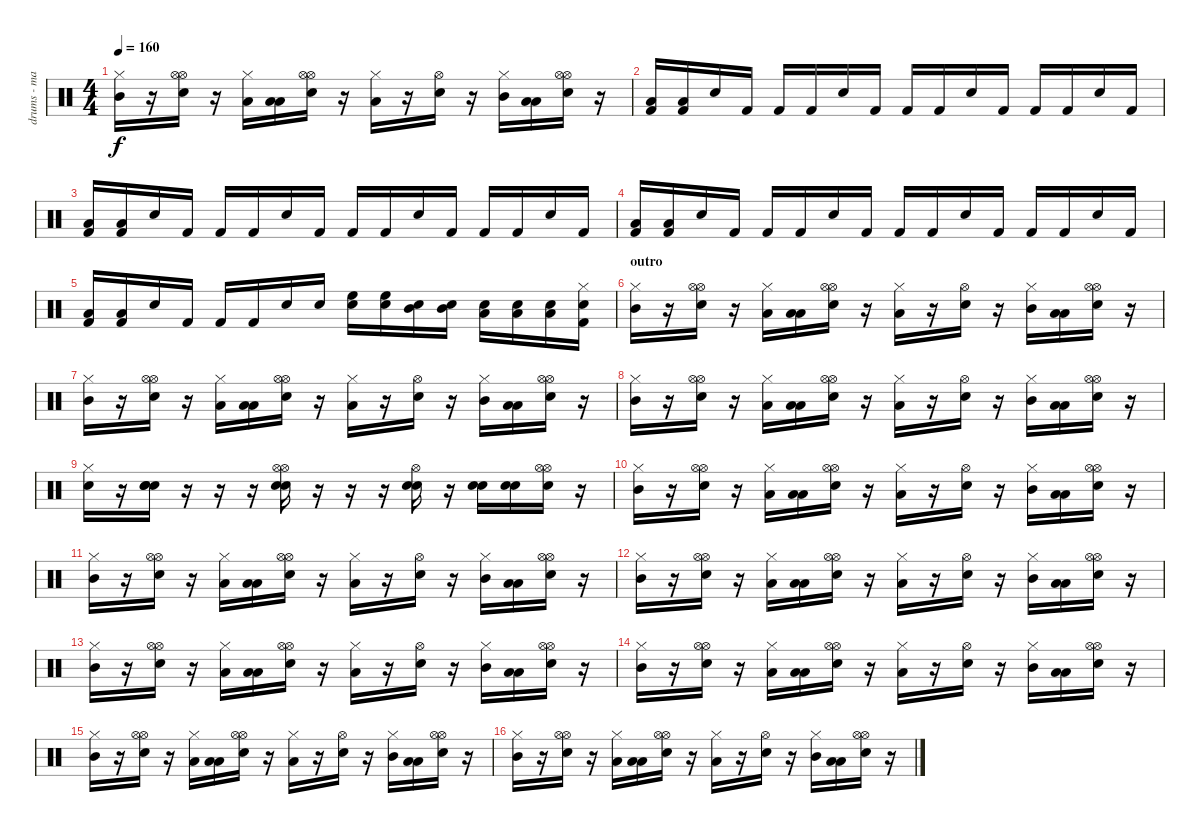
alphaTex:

\track ("drums - martin pelc" "drums - ma") {instrument percussion}
\staff {score}
\articulation defaults
\ts (4 4)
\tempo 160
\clef neutral
\ks c
("Hi-Hat (closed)" "Mid Tom (hit)").16{dy f} r.16 ("Snare (hit) 2" "Hi-Hat (open)" "Hi-Hat (open)").16 r.16 ("Hi-Hat (closed)" "Low Tom (hit)").16 ("Low Tom (hit)" "Low Tom (hit)").16 ("Snare (hit) 2" "Hi-Hat (open)" "Hi-Hat (open)").16 r.16 ("Hi-Hat (closed)" "Low Tom (hit)").16 r.16 ("Snare (hit) 2" "Hi-Hat (open)").16 r.16 ("Hi-Hat (closed)" "Mid Tom (hit)").16 ("Low Tom (hit)" "Low Tom (hit)").16 ("Snare (hit) 2" "Hi-Hat (open)" "Hi-Hat (open)").16 r.16 |
("Low Floor Tom (hit)" "Kick (hit) 2").16 ("Low Floor Tom (hit)" "Kick (hit) 2").16 "Snare (hit) 2".16 "Kick (hit) 2".16 "Kick (hit) 2".16 "Kick (hit) 2".16 "Snare (hit) 2".16 "Kick (hit) 2".16 "Kick (hit) 2".16 "Kick (hit) 2".16 "Snare (hit) 2".16 "Kick (hit) 2".16 "Kick (hit) 2".16 "Kick (hit) 2".16 "Snare (hit) 2".16 "Kick (hit) 2".16 |
("Low Floor Tom (hit)" "Kick (hit) 2").16 ("Low Floor Tom (hit)" "Kick (hit) 2").16 "Snare (hit) 2".16 "Kick (hit) 2".16 "Kick (hit) 2".16 "Kick (hit) 2".16 "Snare (hit) 2".16 "Kick (hit) 2".16 "Kick (hit) 2".16 "Kick (hit) 2".16 "Snare (hit) 2".16 "Kick (hit) 2".16 "Kick (hit) 2".16 "Kick (hit) 2".16 "Snare (hit) 2".16 "Kick (hit) 2".16 |
("Low Floor Tom (hit)" "Kick (hit) 2").16 ("Low Floor Tom (hit)" "Kick (hit) 2").16 "Snare (hit) 2".16 "Kick (hit) 2".16 "Kick (hit) 2".16 "Kick (hit) 2".16 "Snare (hit) 2".16 "Kick (hit) 2".16 "Kick (hit) 2".16 "Kick (hit) 2".16 "Snare (hit) 2".16 "Kick (hit) 2".16 "Kick (hit) 2".16 "Kick (hit) 2".16 "Snare (hit) 2".16 "Kick (hit) 2".16 |
("Low Floor Tom (hit)" "Kick (hit) 2").16 ("Low Floor Tom (hit)" "Kick (hit) 2").16 "Snare (hit) 2".16 "Kick (hit) 2".16 "Kick (hit) 2".16 "Kick (hit) 2".16 "Snare (hit) 2".16 "Snare (hit) 2".16 ("Snare (hit) 2" "High Floor Tom (hit)").16 ("Snare (hit) 2" "High Floor Tom (hit)").16 ("Snare (hit) 2" "Mid Tom (hit)").16 ("Snare (hit) 2" "Mid Tom (hit)").16 ("Snare (hit) 2" "Low Tom (hit)").16 ("Snare (hit) 2" "Low Tom (hit)").16 ("Snare (hit) 2" "Low Floor Tom (hit)").16 ("Snare (hit) 2" "Kick (hit) 2" "Hi-Hat (closed)").16 |
\section ("" "outro")
("Hi-Hat (closed)" "Mid Tom (hit)").16 r.16 ("Snare (hit) 2" "Hi-Hat (open)" "Hi-Hat (open)").16 r.16 ("Hi-Hat (closed)" "Low Tom (hit)").16 ("Low Tom (hit)" "Low Tom (hit)").16 ("Snare (hit) 2" "Hi-Hat (open)" "Hi-Hat (open)").16 r.16 ("Hi-Hat (closed)" "Low Tom (hit)").16 r.16 ("Snare (hit) 2" "Hi-Hat (open)").16 r.16 ("Hi-Hat (closed)" "Mid Tom (hit)").16 ("Low Tom (hit)" "Low Tom (hit)").16 ("Snare (hit) 2" "Hi-Hat (open)" "Hi-Hat (open)").16 r.16 |
("Hi-Hat (closed)" "Mid Tom (hit)").16 r.16 ("Snare (hit) 2" "Hi-Hat (open)" "Hi-Hat (open)").16 r.16 ("Hi-Hat (closed)" "Low Tom (hit)").16 ("Low Tom (hit)" "Low Tom (hit)").16 ("Snare (hit) 2" "Hi-Hat (open)" "Hi-Hat (open)").16 r.16 ("Hi-Hat (closed)" "Low Tom (hit)").16 r.16 ("Snare (hit) 2" "Hi-Hat (open)").16 r.16 ("Hi-Hat (closed)" "Mid Tom (hit)").16 ("Low Tom (hit)" "Low Tom (hit)").16 ("Snare (hit) 2" "Hi-Hat (open)" "Hi-Hat (open)").16 r.16 |
("Hi-Hat (closed)" "Mid Tom (hit)").16 r.16 ("Snare (hit) 2" "Hi-Hat (open)" "Hi-Hat (open)").16 r.16 ("Hi-Hat (closed)" "Low Tom (hit)").16 ("Low Tom (hit)" "Low Tom (hit)").16 ("Snare (hit) 2" "Hi-Hat (open)" "Hi-Hat (open)").16 r.16 ("Hi-Hat (closed)" "Low Tom (hit)").16 r.16 ("Snare (hit) 2" "Hi-Hat (open)").16 r.16 ("Hi-Hat (closed)" "Mid Tom (hit)").16 ("Low Tom (hit)" "Low Tom (hit)").16 ("Snare (hit) 2" "Hi-Hat (open)" "Hi-Hat (open)").16 r.16 |
("Hi-Hat (closed)" "Snare (hit) 2").16 r.16 ("Snare (hit) 2" "Snare (hit) 2" "Snare (hit) 2").16 r.16 r.16 r.16 ("Snare (hit) 2" "Hi-Hat (open)" "Hi-Hat (open)" "Snare (hit) 2").16 r.16 r.16 r.16 ("Snare (hit) 2" "Hi-Hat (open)" "Snare (hit) 2").16 r.16 ("Snare (hit) 2" "Snare (hit) 2").16 ("Snare (hit) 2" "Snare (hit) 2").16 ("Snare (hit) 2" "Hi-Hat (open)" "Hi-Hat (open)").16 r.16 |
("Hi-Hat (closed)" "Mid Tom (hit)").16 r.16 ("Snare (hit) 2" "Hi-Hat (open)" "Hi-Hat (open)").16 r.16 ("Hi-Hat (closed)" "Low Tom (hit)").16 ("Low Tom (hit)" "Low Tom (hit)").16 ("Snare (hit) 2" "Hi-Hat (open)" "Hi-Hat (open)").16 r.16 ("Hi-Hat (closed)" "Low Tom (hit)").16 r.16 ("Snare (hit) 2" "Hi-Hat (open)").16 r.16 ("Hi-Hat (closed)" "Mid Tom (hit)").16 ("Low Tom (hit)" "Low Tom (hit)").16 ("Snare (hit) 2" "Hi-Hat (open)" "Hi-Hat (open)").16 r.16 |
("Hi-Hat (closed)" "Mid Tom (hit)").16 r.16 ("Snare (hit) 2" "Hi-Hat (open)" "Hi-Hat (open)").16 r.16 ("Hi-Hat (closed)" "Low Tom (hit)").16 ("Low Tom (hit)" "Low Tom (hit)").16 ("Snare (hit) 2" "Hi-Hat (open)" "Hi-Hat (open)").16 r.16 ("Hi-Hat (closed)" "Low Tom (hit)").16 r.16 ("Snare (hit) 2" "Hi-Hat (open)").16 r.16 ("Hi-Hat (closed)" "Mid Tom (hit)").16 ("Low Tom (hit)" "Low Tom (hit)").16 ("Snare (hit) 2" "Hi-Hat (open)" "Hi-Hat (open)").16 r.16 |
("Hi-Hat (closed)" "Mid Tom (hit)").16 r.16 ("Snare (hit) 2" "Hi-Hat (open)" "Hi-Hat (open)").16 r.16 ("Hi-Hat (closed)" "Low Tom (hit)").16 ("Low Tom (hit)" "Low Tom (hit)").16 ("Snare (hit) 2" "Hi-Hat (open)" "Hi-Hat (open)").16 r.16 ("Hi-Hat (closed)" "Low Tom (hit)").16 r.16 ("Snare (hit) 2" "Hi-Hat (open)").16 r.16 ("Hi-Hat (closed)" "Mid Tom (hit)").16 ("Low Tom (hit)" "Low Tom (hit)").16 ("Snare (hit) 2" "Hi-Hat (open)" "Hi-Hat (open)").16 r.16 |
("Hi-Hat (closed)" "Mid Tom (hit)").16 r.16 ("Snare (hit) 2" "Hi-Hat (open)" "Hi-Hat (open)").16 r.16 ("Hi-Hat (closed)" "Low Tom (hit)").16 ("Low Tom (hit)" "Low Tom (hit)").16 ("Snare (hit) 2" "Hi-Hat (open)" "Hi-Hat (open)").16 r.16 ("Hi-Hat (closed)" "Low Tom (hit)").16 r.16 ("Snare (hit) 2" "Hi-Hat (open)").16 r.16 ("Hi-Hat (closed)" "Mid Tom (hit)").16 ("Low Tom (hit)" "Low Tom (hit)").16 ("Snare (hit) 2" "Hi-Hat (open)" "Hi-Hat (open)").16 r.16 |
("Hi-Hat (closed)" "Mid Tom (hit)").16 r.16 ("Snare (hit) 2" "Hi-Hat (open)" "Hi-Hat (open)").16 r.16 ("Hi-Hat (closed)" "Low Tom (hit)").16 ("Low Tom (hit)" "Low Tom (hit)").16 ("Snare (hit) 2" "Hi-Hat (open)" "Hi-Hat (open)").16 r.16 ("Hi-Hat (closed)" "Low Tom (hit)").16 r.16 ("Snare (hit) 2" "Hi-Hat (open)").16 r.16 ("Hi-Hat (closed)" "Mid Tom (hit)").16 ("Low Tom (hit)" "Low Tom (hit)").16 ("Snare (hit) 2" "Hi-Hat (open)" "Hi-Hat (open)").16 r.16 |
("Hi-Hat (closed)" "Mid Tom (hit)").16 r.16 ("Snare (hit) 2" "Hi-Hat (open)" "Hi-Hat (open)").16 r.16 ("Hi-Hat (closed)" "Low Tom (hit)").16 ("Low Tom (hit)" "Low Tom (hit)").16 ("Snare (hit) 2" "Hi-Hat (open)" "Hi-Hat (open)").16 r.16 ("Hi-Hat (closed)" "Low Tom (hit)").16 r.16 ("Snare (hit) 2" "Hi-Hat (open)").16 r.16 ("Hi-Hat (closed)" "Mid Tom (hit)").16 ("Low Tom (hit)" "Low Tom (hit)").16 ("Snare (hit) 2" "Hi-Hat (open)" "Hi-Hat (open)").16 r.16 |
("Hi-Hat (closed)" "Mid Tom (hit)").16 r.16 ("Snare (hit) 2" "Hi-Hat (open)" "Hi-Hat (open)").16 r.16 ("Hi-Hat (closed)" "Low Tom (hit)").16 ("Low Tom (hit)" "Low Tom (hit)").16 ("Snare (hit) 2" "Hi-Hat (open)" "Hi-Hat (open)").16 r.16 ("Hi-Hat (closed)" "Low Tom (hit)").16 r.16 ("Snare (hit) 2" "Hi-Hat (open)").16 r.16 ("Hi-Hat (closed)" "Mid Tom (hit)").16 ("Low Tom (hit)" "Low Tom (hit)").16 ("Snare (hit) 2" "Hi-Hat (open)" "Hi-Hat (open)").16 r.16
